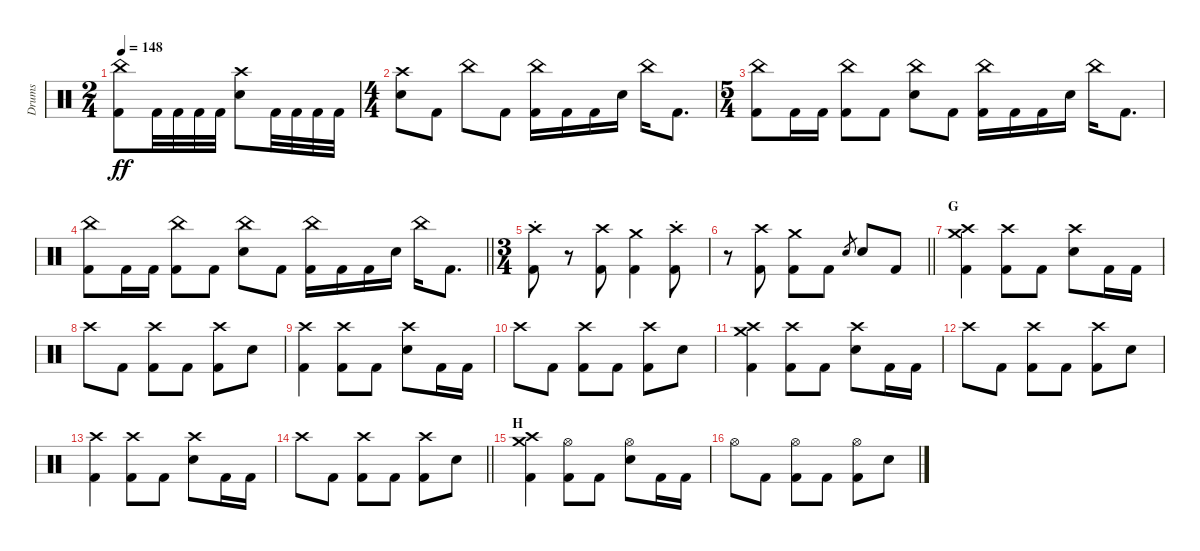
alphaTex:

\track ("Drums" "Drums") {instrument percussion}
\staff {score}
\articulation defaults
\ts (2 4)
\tempo 148
\clef neutral
\ks c
("China (hit)" "Kick (hit) 2").8{dy ff} "Kick (hit) 2".32 "Kick (hit) 2".32 "Kick (hit) 2".32 "Kick (hit) 2".32 ("Crash high (hit)" "Electric Snare (hit)").8 "Kick (hit) 2".32 "Kick (hit) 2".32 "Kick (hit) 2".32 "Kick (hit) 2".32 |
\ts (4 4)
("Crash high (hit)" "Electric Snare (hit)").8 "Kick (hit) 2".8 "China (hit)".8 "Kick (hit) 2".8 ("China (hit)" "Kick (hit) 2").16 "Kick (hit) 2".16 "Kick (hit) 2".16 "Electric Snare (hit)".16 "China (hit)".16 "Kick (hit) 2".8{d} |
\ts (5 4)
("China (hit)" "Kick (hit) 2").8 "Kick (hit) 2".16 "Kick (hit) 2".16 ("China (hit)" "Kick (hit) 2").8 "Kick (hit) 2".8 ("China (hit)" "Electric Snare (hit)").8 "Kick (hit) 2".8 ("China (hit)" "Kick (hit) 2").16 "Kick (hit) 2".16 "Kick (hit) 2".16 "Electric Snare (hit)".16 "China (hit)".16 "Kick (hit) 2".8{d} |
\barLineRight lightlight
("China (hit)" "Kick (hit) 2").8 "Kick (hit) 2".16 "Kick (hit) 2".16 ("China (hit)" "Kick (hit) 2").8 "Kick (hit) 2".8 ("China (hit)" "Electric Snare (hit)").8 "Kick (hit) 2".8 ("China (hit)" "Kick (hit) 2").16 "Kick (hit) 2".16 "Kick (hit) 2".16 "Electric Snare (hit)".16 "China (hit)".16 "Kick (hit) 2".8{d} |
\ts (3 4)
\section ("" "")
("Crash high (hit)"{st} "Kick (hit) 2").8 r.8{volume 0} ("Crash high (hit)" "Kick (hit) 2").8{volume 14} ("Crash medium (hit)" "Kick (hit) 2").4 ("Crash high (hit)"{st} "Kick (hit) 2").8 |
\barLineRight lightlight
r.8{volume 0} ("Crash high (hit)" "Kick (hit) 2").8{volume 14} ("Crash medium (hit)" "Kick (hit) 2").8 "Kick (hit) 2".8 "Electric Snare (hit)".8{gr} "Electric Snare (hit)".8 "Kick (hit) 2".8 |
\section ("" "G")
("Crash medium (hit)" "Crash high (hit)" "Kick (hit) 2").4 ("Crash high (hit)" "Kick (hit) 2").8 "Kick (hit) 2".8 ("Crash high (hit)" "Electric Snare (hit)").8 "Kick (hit) 2".16 "Kick (hit) 2".16 |
"Crash high (hit)".8 "Kick (hit) 2".8 ("Crash high (hit)" "Kick (hit) 2").8 "Kick (hit) 2".8 ("Crash high (hit)" "Kick (hit) 2").8 "Electric Snare (hit)".8 |
("Crash high (hit)" "Kick (hit) 2").4 ("Crash high (hit)" "Kick (hit) 2").8 "Kick (hit) 2".8 ("Crash high (hit)" "Electric Snare (hit)").8 "Kick (hit) 2".16 "Kick (hit) 2".16 |
"Crash high (hit)".8 "Kick (hit) 2".8 ("Crash high (hit)" "Kick (hit) 2").8 "Kick (hit) 2".8 ("Crash high (hit)" "Kick (hit) 2").8 "Electric Snare (hit)".8 |
("Crash medium (hit)" "Crash high (hit)" "Kick (hit) 2").4 ("Crash high (hit)" "Kick (hit) 2").8 "Kick (hit) 2".8 ("Crash high (hit)" "Electric Snare (hit)").8 "Kick (hit) 2".16 "Kick (hit) 2".16 |
"Crash high (hit)".8 "Kick (hit) 2".8 ("Crash high (hit)" "Kick (hit) 2").8 "Kick (hit) 2".8 ("Crash high (hit)" "Kick (hit) 2").8 "Electric Snare (hit)".8 |
("Crash high (hit)" "Kick (hit) 2").4 ("Crash high (hit)" "Kick (hit) 2").8 "Kick (hit) 2".8 ("Crash high (hit)" "Electric Snare (hit)").8 "Kick (hit) 2".16 "Kick (hit) 2".16 |
\barLineRight lightlight "Crash high (hit)".8 "Kick (hit) 2".8
("Crash high (hit)" "Kick (hit) 2").8 "Kick (hit) 2".8 ("Crash high (hit)" "Kick (hit) 2").8 "Electric Snare (hit)".8 |
\section ("" "H")
("Crash medium (hit)" "Crash high (hit)" "Kick (hit) 2").4 ("Hi-Hat (open)" "Kick (hit) 2").8 "Kick (hit) 2".8 ("Hi-Hat (open)" "Electric Snare (hit)").8 "Kick (hit) 2".16 "Kick (hit) 2".16 |
"Hi-Hat (open)".8 "Kick (hit) 2".8 ("Hi-Hat (open)" "Kick (hit) 2").8 "Kick (hit) 2".8 ("Hi-Hat (open)" "Kick (hit) 2").8 "Electric Snare (hit)".8
